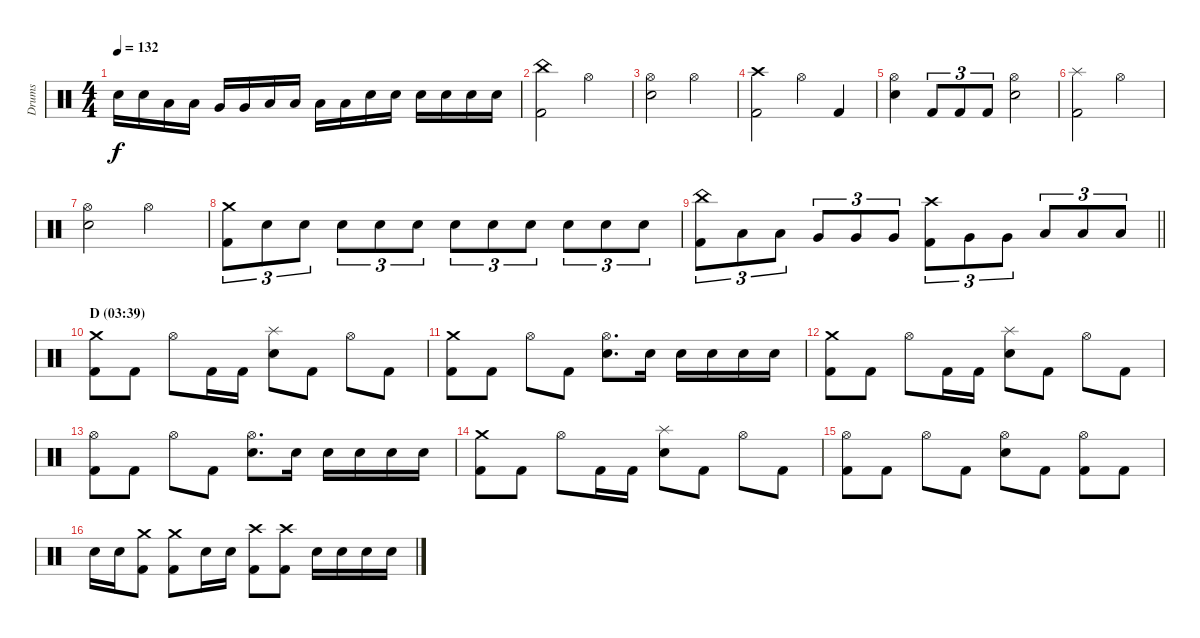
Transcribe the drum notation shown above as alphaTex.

\track ("Drums" "Drums") {instrument percussion}
\staff {score}
\articulation defaults
\ts (4 4)
\tempo 132
\clef neutral
\ks c "Electric Snare (hit)".16{dy f} "Electric Snare (hit)".16 "Low Tom (hit)".16 "Low Tom (hit)".16 "Very Low Tom (hit)".16 "Very Low Tom (hit)".16 "Low Floor Tom (hit)".16 "Low Floor Tom (hit)".16 "Low Floor Tom (hit)".16 "Low Floor Tom (hit)".16 "Electric Snare (hit)".16 "Electric Snare (hit)".16 "Electric Snare (hit)".16 "Electric Snare (hit)".16 "Electric Snare (hit)".16 "Electric Snare (hit)".16
|
("China (hit)" "Kick (hit) 2").2 "Hi-Hat (open)".2 |
("Hi-Hat (open)" "Electric Snare (hit)").2 "Hi-Hat (open)".2 |
("Crash high (hit)" "Kick (hit) 2").2 "Hi-Hat (open)".4 "Kick (hit) 2".4 |
("Hi-Hat (open)" "Electric Snare (hit)").4 "Kick (hit) 2".8{tu (3 2)} "Kick (hit) 2".8{tu (3 2)} "Kick (hit) 2".8{tu (3 2)} ("Hi-Hat (open)" "Electric Snare (hit)").2 |
("Splash (hit)" "Kick (hit) 2").2 "Hi-Hat (open)".2 |
("Hi-Hat (open)" "Electric Snare (hit)").2 "Hi-Hat (open)".2 |
("Crash medium (hit)" "Kick (hit) 2").8{tu (3 2)} "Electric Snare (hit)".8{tu (3 2)} "Electric Snare (hit)".8{tu (3 2)} "Electric Snare (hit)".8{tu (3 2)} "Electric Snare (hit)".8{tu (3 2)} "Electric Snare (hit)".8{tu (3 2)} "Electric Snare (hit)".8{tu (3 2)} "Electric Snare (hit)".8{tu (3 2)} "Electric Snare (hit)".8{tu (3 2)} "Electric Snare (hit)".8{tu (3 2)} "Electric Snare (hit)".8{tu (3 2)} "Electric Snare (hit)".8{tu (3 2)} |
\barLineRight lightlight
("China (hit)" "Kick (hit) 2").8{tu (3 2)} "Low Tom (hit)".8{tu (3 2)} "Low Tom (hit)".8{tu (3 2)} "Very Low Tom (hit)".8{tu (3 2)} "Very Low Tom (hit)".8{tu (3 2)} "Very Low Tom (hit)".8{tu (3 2)} ("Crash high (hit)" "Kick (hit) 2").8{tu (3 2)} "Very Low Tom (hit)".8{tu (3 2)} "Very Low Tom (hit)".8{tu (3 2)} "Low Floor Tom (hit)".8{tu (3 2)} "Low Floor Tom (hit)".8{tu (3 2)} "Low Floor Tom (hit)".8{tu (3 2)} |
\section ("" "D (03:39)")
("Crash medium (hit)" "Kick (hit) 2").8 "Kick (hit) 2".8 "Hi-Hat (open)".8 "Kick (hit) 2".16 "Kick (hit) 2".16 ("Splash (hit)" "Electric Snare (hit)").8 "Kick (hit) 2".8 "Hi-Hat (open)".8 "Kick (hit) 2".8 |
("Crash medium (hit)" "Kick (hit) 2").8 "Kick (hit) 2".8 "Hi-Hat (open)".8 "Kick (hit) 2".8 ("Hi-Hat (open)" "Electric Snare (hit)").8{d} "Electric Snare (hit)".16 "Electric Snare (hit)".16 "Electric Snare (hit)".16 "Electric Snare (hit)".16 "Electric Snare (hit)".16 |
("Crash medium (hit)" "Kick (hit) 2").8 "Kick (hit) 2".8 "Hi-Hat (open)".8 "Kick (hit) 2".16 "Kick (hit) 2".16 ("Splash (hit)" "Electric Snare (hit)").8 "Kick (hit) 2".8 "Hi-Hat (open)".8 "Kick (hit) 2".8 |
("Hi-Hat (open)" "Kick (hit) 2").8 "Kick (hit) 2".8 "Hi-Hat (open)".8 "Kick (hit) 2".8 ("Hi-Hat (open)" "Electric Snare (hit)").8{d} "Electric Snare (hit)".16 "Electric Snare (hit)".16 "Electric Snare (hit)".16 "Electric Snare (hit)".16 "Electric Snare (hit)".16 |
("Crash medium (hit)" "Kick (hit) 2").8 "Kick (hit) 2".8 "Hi-Hat (open)".8 "Kick (hit) 2".16 "Kick (hit) 2".16 ("Splash (hit)" "Electric Snare (hit)").8 "Kick (hit) 2".8 "Hi-Hat (open)".8 "Kick (hit) 2".8 |
("Hi-Hat (open)" "Kick (hit) 2").8 "Kick (hit) 2".8 "Hi-Hat (open)".8 "Kick (hit) 2".8 ("Hi-Hat (open)" "Electric Snare (hit)").8 "Kick (hit) 2".8 ("Hi-Hat (open)" "Kick (hit) 2").8 "Kick (hit) 2".8 |
"Electric Snare (hit)".16 "Electric Snare (hit)".16 ("Crash medium (hit)" "Kick (hit) 2").8 ("Crash medium (hit)" "Kick (hit) 2").8 "Electric Snare (hit)".16 "Electric Snare (hit)".16 ("Crash high (hit)" "Kick (hit) 2").8 ("Crash high (hit)" "Kick (hit) 2").8 "Electric Snare (hit)".16 "Electric Snare (hit)".16 "Electric Snare (hit)".16 "Electric Snare (hit)".16
